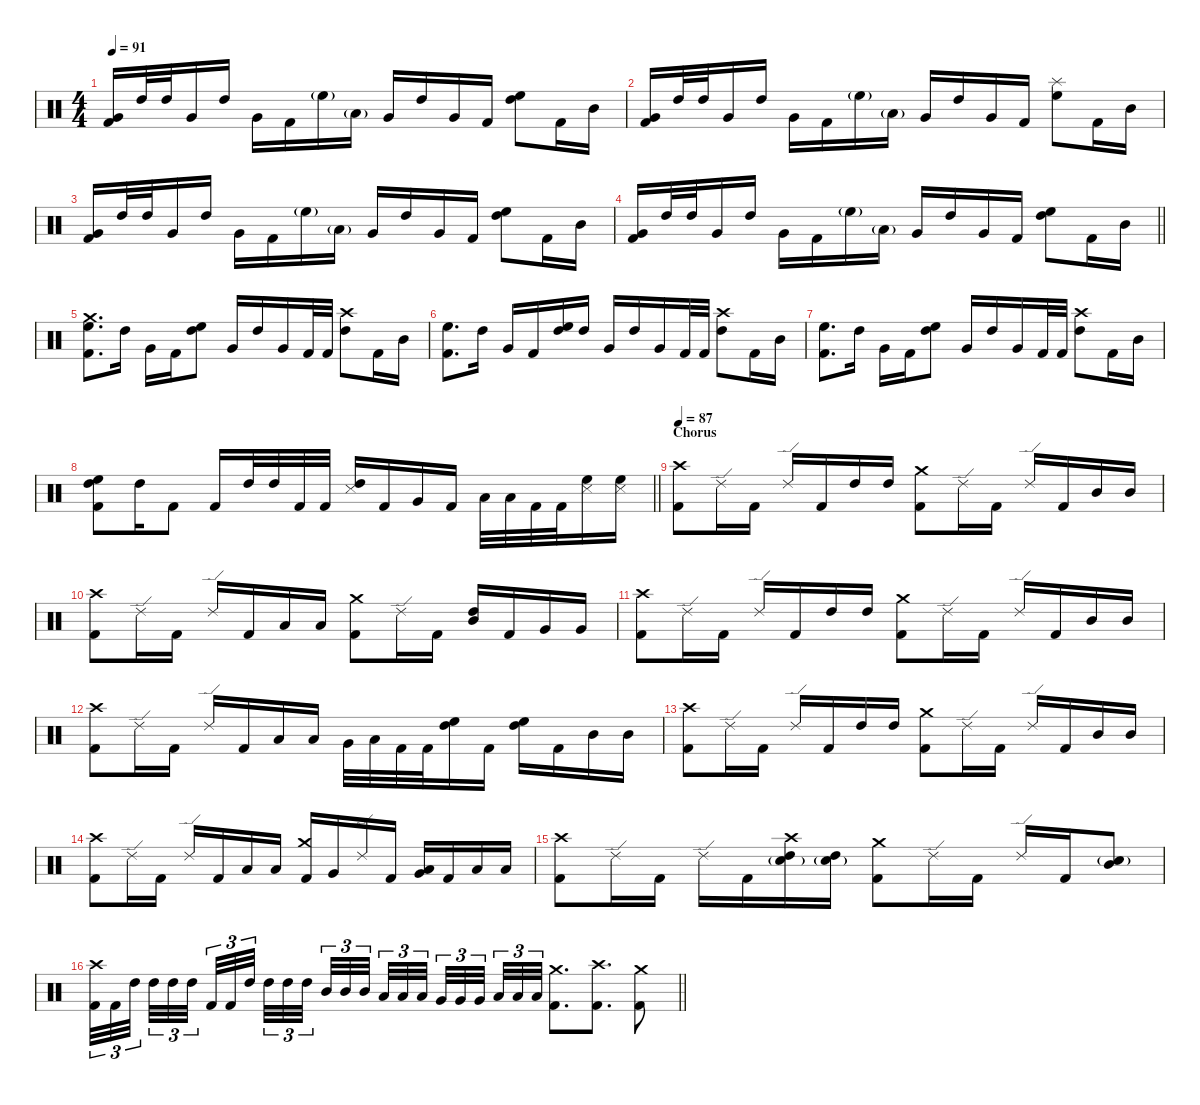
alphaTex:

\defaultSystemsLayout 4
\hideDynamics
\bracketExtendMode nobrackets
\singleTrackTrackNamePolicy hidden
\multiTrackTrackNamePolicy hidden
\otherSystemsTrackNameOrientation horizontal
\track ("Drums" "drm.") {instrument percussion}
\staff {score}
\articulation defaults
\ts (4 4)
\section ("" "")
\tempo 91
\clef neutral
\ks c
("Very Low Tom (hit)" "Kick (hit) 2").16{dy f beam Up} "High Tom (hit)".32{beam Up} "High Tom (hit)".32{beam Up} "Very Low Tom (hit)".16{beam Up} "High Tom (hit)".16{beam Up} "Very Low Tom (hit)".16{beam Down} "Kick (hit) 2".16{beam Down} "High Floor Tom (hit)"{g}.16{dy ff beam Down} "Low Floor Tom (hit)"{g}.16{beam Down} "Very Low Tom (hit)".16{dy f beam Up} "High Tom (hit)".16{beam Up} "Very Low Tom (hit)".16{beam Up} "Kick (hit) 2".16{beam Up} ("High Floor Tom (hit)" "High Tom (hit)").8{beam Down} "Kick (hit) 2".16{beam Down} "Mid Tom (hit)".16{beam Down} |
("Very Low Tom (hit)" "Kick (hit) 2").16{beam Up} "High Tom (hit)".32{beam Up} "High Tom (hit)".32{beam Up} "Very Low Tom (hit)".16{beam Up} "High Tom (hit)".16{beam Up} "Very Low Tom (hit)".16{beam Down} "Kick (hit) 2".16{beam Down} "High Floor Tom (hit)"{g}.16{dy ff beam Down} "Low Floor Tom (hit)"{g}.16{beam Down} "Very Low Tom (hit)".16{dy f beam Up} "High Tom (hit)".16{beam Up} "Very Low Tom (hit)".16{beam Up} "Kick (hit) 2".16{beam Up} ("Splash (hit)" "High Floor Tom (hit)").8{dy mf beam Down} "Kick (hit) 2".16{dy f beam Down} "Mid Tom (hit)".16{beam Down} |
("Very Low Tom (hit)" "Kick (hit) 2").16{beam Up} "High Tom (hit)".32{beam Up} "High Tom (hit)".32{beam Up} "Very Low Tom (hit)".16{beam Up} "High Tom (hit)".16{beam Up} "Very Low Tom (hit)".16{beam Down} "Kick (hit) 2".16{beam Down} "High Floor Tom (hit)"{g}.16{dy ff beam Down} "Low Floor Tom (hit)"{g}.16{beam Down} "Very Low Tom (hit)".16{dy f beam Up} "High Tom (hit)".16{beam Up} "Very Low Tom (hit)".16{beam Up} "Kick (hit) 2".16{beam Up} ("High Floor Tom (hit)" "High Tom (hit)").8{beam Down} "Kick (hit) 2".16{beam Down} "Mid Tom (hit)".16{beam Down} |
\barLineRight lightlight
("Very Low Tom (hit)" "Kick (hit) 2").16{beam Up} "High Tom (hit)".32{beam Up} "High Tom (hit)".32{beam Up} "Very Low Tom (hit)".16{beam Up} "High Tom (hit)".16{beam Up} "Very Low Tom (hit)".16{beam Down} "Kick (hit) 2".16{beam Down} "High Floor Tom (hit)"{g}.16{dy ff beam Down} "Low Floor Tom (hit)"{g}.16{beam Down} "Very Low Tom (hit)".16{dy f beam Up} "High Tom (hit)".16{beam Up} "Very Low Tom (hit)".16{beam Up} "Kick (hit) 2".16{beam Up} ("High Floor Tom (hit)" "High Tom (hit)").8{beam Down} "Kick (hit) 2".16{beam Down} "Mid Tom (hit)".16{beam Down} |
\section ("" "")
("Crash medium (hit)" "High Floor Tom (hit)" "Kick (hit) 2").8{d dy mf beam Down} "High Tom (hit)".16{dy f beam Down} "Very Low Tom (hit)".16{beam Down} "Kick (hit) 2".16{beam Down} ("High Floor Tom (hit)" "High Tom (hit)").8{beam Down} "Very Low Tom (hit)".16{beam Up} "High Tom (hit)".16{beam Up} "Very Low Tom (hit)".16{beam Up} "Kick (hit) 2".32{beam Up} "Kick (hit) 2".32{beam Up} ("Crash high (hit)" "High Tom (hit)").8{dy mf beam Down} "Kick (hit) 2".16{dy f beam Down} "Mid Tom (hit)".16{beam Down} |
("High Floor Tom (hit)" "Kick (hit) 2").8{d beam Down} "High Tom (hit)".16{beam Down} "Very Low Tom (hit)".16{beam Up} "Kick (hit) 2".16{beam Up} ("High Floor Tom (hit)" "High Tom (hit)").16{beam Up} "High Tom (hit)".16{beam Up} "Very Low Tom (hit)".16{beam Up} "High Tom (hit)".16{beam Up} "Very Low Tom (hit)".16{beam Up} "Kick (hit) 2".32{beam Up} "Kick (hit) 2".32{beam Up} ("Crash high (hit)" "High Tom (hit)").8{dy mf beam Down} "Kick (hit) 2".16{dy f beam Down} "Mid Tom (hit)".16{beam Down} |
("High Floor Tom (hit)" "Kick (hit) 2").8{d beam Down} "High Tom (hit)".16{beam Down} "Very Low Tom (hit)".16{beam Down} "Kick (hit) 2".16{beam Down} ("High Floor Tom (hit)" "High Tom (hit)").8{beam Down} "Very Low Tom (hit)".16{beam Up} "High Tom (hit)".16{beam Up} "Very Low Tom (hit)".16{beam Up} "Kick (hit) 2".32{beam Up} "Kick (hit) 2".32{beam Up} ("Crash high (hit)" "High Tom (hit)").8{dy mf beam Down} "Kick (hit) 2".16{dy f beam Down} "Mid Tom (hit)".16{beam Down} |
\barLineRight lightlight
("High Floor Tom (hit)" "High Tom (hit)" "Kick (hit) 2").8{beam Down} "High Tom (hit)".16{beam Down} "Kick (hit) 2".8{beam Down} "Kick (hit) 2".16{beam Up} "High Tom (hit)".32{beam Up} "High Tom (hit)".32{beam Up} "Kick (hit) 2".32{beam Up} "Kick (hit) 2".32{beam Up} ("Snare (side stick) 3" "High Tom (hit)").16{beam Up} "Kick (hit) 2".16{beam Up} "Very Low Tom (hit)".16{beam Up} "Kick (hit) 2".16{beam Up} "Low Tom (hit)".32{beam Down} "Low Tom (hit)".32{beam Down} "Kick (hit) 2".32{beam Down} "Kick (hit) 2".32{beam Down} ("Snare (side stick) 3" "High Floor Tom (hit)").16{beam Down} ("Snare (side stick) 3" "High Floor Tom (hit)").16{beam Down} |
\section ("" "Chorus")
\tempo 87
("Crash high (hit)" "Kick (hit) 2").8{beam Down} "Ride (edge) 2".16{beam Down} "Kick (hit) 2".16{beam Down} "Ride (edge) 2".16{beam Up} "Kick (hit) 2".16{beam Up} "High Tom (hit)".16{beam Up} "High Tom (hit)".16{beam Up} ("Crash medium (hit)" "Kick (hit) 2").8{beam Down} "Ride (edge) 2".16{beam Down} "Kick (hit) 2".16{beam Down} "Ride (edge) 2".16{beam Up} "Kick (hit) 2".16{beam Up} "Mid Tom (hit)".16{beam Up} "Mid Tom (hit)".16{beam Up} |
("Crash high (hit)" "Kick (hit) 2").8{beam Down} "Ride (edge) 2".16{beam Down} "Kick (hit) 2".16{beam Down} "Ride (edge) 2".16{beam Up} "Kick (hit) 2".16{beam Up} "Low Tom (hit)".16{beam Up} "Low Tom (hit)".16{beam Up} ("Crash medium (hit)" "Kick (hit) 2").8{beam Down} "Ride (edge) 2".16{beam Down} "Kick (hit) 2".16{beam Down} ("High Tom (hit)" "Mid Tom (hit)").16{beam Up} "Kick (hit) 2".16{beam Up} "Very Low Tom (hit)".16{beam Up} "Very Low Tom (hit)".16{beam Up} |
("Crash high (hit)" "Kick (hit) 2").8{beam Down} "Ride (edge) 2".16{beam Down} "Kick (hit) 2".16{beam Down} "Ride (edge) 2".16{beam Up} "Kick (hit) 2".16{beam Up} "High Tom (hit)".16{beam Up} "High Tom (hit)".16{beam Up} ("Crash medium (hit)" "Kick (hit) 2").8{beam Down} "Ride (edge) 2".16{beam Down} "Kick (hit) 2".16{beam Down} "Ride (edge) 2".16{beam Up} "Kick (hit) 2".16{beam Up} "Mid Tom (hit)".16{beam Up} "Mid Tom (hit)".16{beam Up} |
("Crash high (hit)" "Kick (hit) 2").8{beam Down} "Ride (edge) 2".16{beam Down} "Kick (hit) 2".16{beam Down} "Ride (edge) 2".16{beam Up} "Kick (hit) 2".16{beam Up} "Low Tom (hit)".16{beam Up} "Low Tom (hit)".16{beam Up} "Very Low Tom (hit)".32{beam Down} "Low Tom (hit)".32{beam Down} "Kick (hit) 2".32{beam Down} "Kick (hit) 2".32{beam Down} ("High Floor Tom (hit)" "High Tom (hit)").16{beam Down} "Kick (hit) 2".16{beam Down} ("High Floor Tom (hit)" "High Tom (hit)").16{beam Down} "Kick (hit) 2".16{beam Down} "Mid Tom (hit)".16{beam Down} "Mid Tom (hit)".16{beam Down} |
("Crash high (hit)" "Kick (hit) 2").8{beam Down} "Ride (edge) 2".16{beam Down} "Kick (hit) 2".16{beam Down} "Ride (edge) 2".16{beam Up} "Kick (hit) 2".16{beam Up} "High Tom (hit)".16{beam Up} "High Tom (hit)".16{beam Up} ("Crash medium (hit)" "Kick (hit) 2").8{beam Down} "Ride (edge) 2".16{beam Down} "Kick (hit) 2".16{beam Down} "Ride (edge) 2".16{beam Up} "Kick (hit) 2".16{beam Up} "Mid Tom (hit)".16{beam Up} "Mid Tom (hit)".16{beam Up} |
("Crash high (hit)" "Kick (hit) 2").8{beam Down} "Ride (edge) 2".16{beam Down} "Kick (hit) 2".16{beam Down} "Ride (edge) 2".16{beam Up} "Kick (hit) 2".16{beam Up} "Low Tom (hit)".16{beam Up} "Low Tom (hit)".16{beam Up} ("Crash medium (hit)" "Kick (hit) 2").16{beam Up} "Very Low Tom (hit)".16{beam Up} "Ride (edge) 2".16{beam Up} "Kick (hit) 2".16{beam Up} ("Low Tom (hit)" "Very Low Tom (hit)").16{beam Up} "Kick (hit) 2".16{beam Up} "Low Floor Tom (hit)".16{beam Up} "Low Floor Tom (hit)".16{beam Up} |
("Crash high (hit)" "Kick (hit) 2").8{beam Down} "Ride (edge) 2".16{beam Down} "Kick (hit) 2".16{beam Down} "Ride (edge) 2".16{beam Down} "Kick (hit) 2".16{beam Down} ("Crash high (hit)" "High Tom (hit)" "Snare (hit) 2"{g}).16{beam Down} ("High Tom (hit)" "Snare (hit) 2"{g}).16{beam Down} ("Crash medium (hit)" "Kick (hit) 2").8{beam Down} "Ride (edge) 2".16{beam Down} "Kick (hit) 2".16{beam Down} "Ride (edge) 2".16{beam Up} "Kick (hit) 2".16{beam Up} ("Mid Tom (hit)" "Snare (hit) 2"{g}).8{beam Up} |
\barLineRight lightlight
("Crash high (hit)" "Kick (hit) 2").32{tu (3 2) beam Down} "Kick (hit) 2".32{tu (3 2) beam Down} "High Tom (hit)".32{tu (3 2) beam Down} "High Tom (hit)".32{tu (3 2) beam Down} "High Tom (hit)".32{tu (3 2) beam Down} "High Tom (hit)".32{tu (3 2) beam Down} "Kick (hit) 2".32{tu (3 2) beam Up} "Kick (hit) 2".32{tu (3 2) beam Up} "High Tom (hit)".32{tu (3 2) beam Up} "High Tom (hit)".32{tu (3 2) beam Down} "High Tom (hit)".32{tu (3 2) beam Down} "High Tom (hit)".32{tu (3 2) beam Down} "Mid Tom (hit)".32{tu (3 2) beam Up} "Mid Tom (hit)".32{tu (3 2) beam Up} "Mid Tom (hit)".32{tu (3 2) beam Up} "Low Tom (hit)".32{tu (3 2) beam Up} "Low Tom (hit)".32{tu (3 2) beam Up} "Low Tom (hit)".32{tu (3 2) beam Up} "Very Low Tom (hit)".32{tu (3 2) beam Up} "Very Low Tom (hit)".32{tu (3 2) beam Up} "Very Low Tom (hit)".32{tu (3 2) beam Up} "Low Floor Tom (hit)".32{tu (3 2) beam Up} "Low Floor Tom (hit)".32{tu (3 2) beam Up} "Low Floor Tom (hit)".32{tu (3 2) beam Up} ("Crash medium (hit)" "Kick (hit) 2").8{d beam Down} ("Crash high (hit)" "Kick (hit) 2").8{d beam Down} ("Crash medium (hit)" "Kick (hit) 2").8{beam Down}
